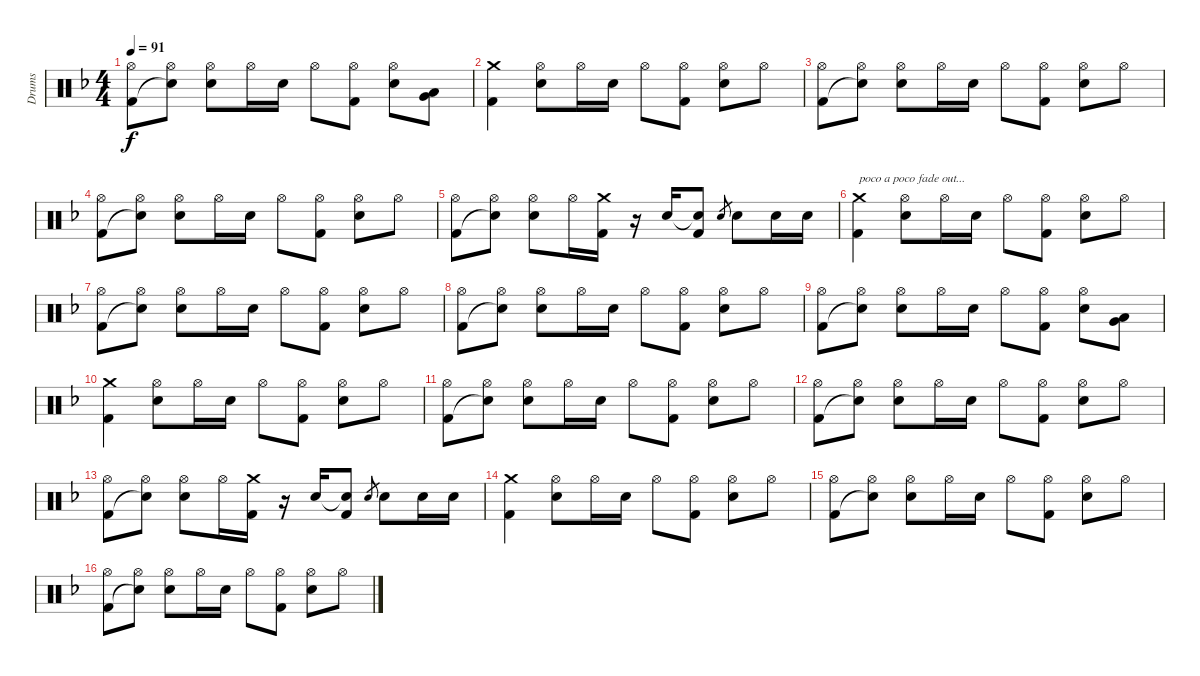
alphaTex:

\track ("Drums" "Drums") {instrument percussion}
\staff {score}
\articulation defaults
\ts (4 4)
\tempo 91
\clef neutral
\ks f
("Hi-Hat (open)" "Kick (hit) 2").8{dy f} ("Hi-Hat (open)" "Snare (hit)"{t}).8 ("Hi-Hat (open)" "Electric Snare (hit)").8 "Hi-Hat (open)".16 "Electric Snare (hit)".16 "Hi-Hat (open)".8 ("Hi-Hat (open)" "Kick (hit) 2").8 ("Hi-Hat (open)" "Electric Snare (hit)").8 ("Very Low Tom (hit)" "Low Floor Tom (hit)").8 |
("Crash medium (hit)" "Kick (hit) 2").4 ("Hi-Hat (open)" "Electric Snare (hit)").8 "Hi-Hat (open)".16 "Electric Snare (hit)".16 "Hi-Hat (open)".8 ("Hi-Hat (open)" "Kick (hit) 2").8 ("Hi-Hat (open)" "Electric Snare (hit)").8 "Hi-Hat (open)".8 |
("Hi-Hat (open)" "Kick (hit) 2").8 ("Hi-Hat (open)" "Snare (hit)"{t}).8 ("Hi-Hat (open)" "Electric Snare (hit)").8 "Hi-Hat (open)".16 "Electric Snare (hit)".16 "Hi-Hat (open)".8 ("Hi-Hat (open)" "Kick (hit) 2").8 ("Hi-Hat (open)" "Electric Snare (hit)").8 "Hi-Hat (open)".8 |
("Hi-Hat (open)" "Kick (hit) 2").8 ("Hi-Hat (open)" "Snare (hit)"{t}).8 ("Hi-Hat (open)" "Electric Snare (hit)").8 "Hi-Hat (open)".16 "Electric Snare (hit)".16 "Hi-Hat (open)".8 ("Hi-Hat (open)" "Kick (hit) 2").8 ("Hi-Hat (open)" "Electric Snare (hit)").8 "Hi-Hat (open)".8 |
("Hi-Hat (open)" "Kick (hit) 2").8 ("Hi-Hat (open)" "Snare (hit)"{t}).8 ("Hi-Hat (open)" "Electric Snare (hit)").8 "Hi-Hat (open)".16 ("Crash medium (hit)" "Kick (hit) 2").16 r.16 "Electric Snare (hit)".16 ("Snare (hit)"{t} "Kick (hit) 2").8 "Electric Snare (hit)".8{gr} "Electric Snare (hit)".8 "Electric Snare (hit)".16 "Electric Snare (hit)".16 |
("Crash medium (hit)" "Kick (hit) 2").4{txt "poco a poco fade out..."} ("Hi-Hat (open)" "Electric Snare (hit)").8 "Hi-Hat (open)".16 "Electric Snare (hit)".16 "Hi-Hat (open)".8 ("Hi-Hat (open)" "Kick (hit) 2").8 ("Hi-Hat (open)" "Electric Snare (hit)").8 "Hi-Hat (open)".8 |
("Hi-Hat (open)" "Kick (hit) 2").8{volume 12} ("Hi-Hat (open)" "Snare (hit)"{t}).8 ("Hi-Hat (open)" "Electric Snare (hit)").8 "Hi-Hat (open)".16 "Electric Snare (hit)".16 "Hi-Hat (open)".8 ("Hi-Hat (open)" "Kick (hit) 2").8 ("Hi-Hat (open)" "Electric Snare (hit)").8 "Hi-Hat (open)".8 |
("Hi-Hat (open)" "Kick (hit) 2").8 ("Hi-Hat (open)" "Snare (hit)"{t}).8 ("Hi-Hat (open)" "Electric Snare (hit)").8 "Hi-Hat (open)".16 "Electric Snare (hit)".16 "Hi-Hat (open)".8 ("Hi-Hat (open)" "Kick (hit) 2").8 ("Hi-Hat (open)" "Electric Snare (hit)").8 "Hi-Hat (open)".8 |
("Hi-Hat (open)" "Kick (hit) 2").8 ("Hi-Hat (open)" "Snare (hit)"{t}).8 ("Hi-Hat (open)" "Electric Snare (hit)").8 "Hi-Hat (open)".16 "Electric Snare (hit)".16 "Hi-Hat (open)".8 ("Hi-Hat (open)" "Kick (hit) 2").8 ("Hi-Hat (open)" "Electric Snare (hit)").8 ("Very Low Tom (hit)" "Low Floor Tom (hit)").8 |
("Crash medium (hit)" "Kick (hit) 2").4{volume 11} ("Hi-Hat (open)" "Electric Snare (hit)").8 "Hi-Hat (open)".16 "Electric Snare (hit)".16 "Hi-Hat (open)".8 ("Hi-Hat (open)" "Kick (hit) 2").8 ("Hi-Hat (open)" "Electric Snare (hit)").8 "Hi-Hat (open)".8 |
("Hi-Hat (open)" "Kick (hit) 2").8 ("Hi-Hat (open)" "Snare (hit)"{t}).8 ("Hi-Hat (open)" "Electric Snare (hit)").8 "Hi-Hat (open)".16 "Electric Snare (hit)".16 "Hi-Hat (open)".8 ("Hi-Hat (open)" "Kick (hit) 2").8 ("Hi-Hat (open)" "Electric Snare (hit)").8 "Hi-Hat (open)".8 |
("Hi-Hat (open)" "Kick (hit) 2").8 ("Hi-Hat (open)" "Snare (hit)"{t}).8 ("Hi-Hat (open)" "Electric Snare (hit)").8 "Hi-Hat (open)".16 "Electric Snare (hit)".16 "Hi-Hat (open)".8 ("Hi-Hat (open)" "Kick (hit) 2").8 ("Hi-Hat (open)" "Electric Snare (hit)").8 "Hi-Hat (open)".8 |
("Hi-Hat (open)" "Kick (hit) 2").8{volume 10} ("Hi-Hat (open)" "Snare (hit)"{t}).8 ("Hi-Hat (open)" "Electric Snare (hit)").8 "Hi-Hat (open)".16 ("Crash medium (hit)" "Kick (hit) 2").16 r.16 "Electric Snare (hit)".16 ("Snare (hit)"{t} "Kick (hit) 2").8 "Electric Snare (hit)".8{gr} "Electric Snare (hit)".8 "Electric Snare (hit)".16 "Electric Snare (hit)".16 |
("Crash medium (hit)" "Kick (hit) 2").4 ("Hi-Hat (open)" "Electric Snare (hit)").8 "Hi-Hat (open)".16 "Electric Snare (hit)".16 "Hi-Hat (open)".8 ("Hi-Hat (open)" "Kick (hit) 2").8 ("Hi-Hat (open)" "Electric Snare (hit)").8 "Hi-Hat (open)".8 |
("Hi-Hat (open)" "Kick (hit) 2").8{volume 9} ("Hi-Hat (open)" "Snare (hit)"{t}).8 ("Hi-Hat (open)" "Electric Snare (hit)").8 "Hi-Hat (open)".16 "Electric Snare (hit)".16 "Hi-Hat (open)".8 ("Hi-Hat (open)" "Kick (hit) 2").8 ("Hi-Hat (open)" "Electric Snare (hit)").8 "Hi-Hat (open)".8 |
("Hi-Hat (open)" "Kick (hit) 2").8 ("Hi-Hat (open)" "Snare (hit)"{t}).8 ("Hi-Hat (open)" "Electric Snare (hit)").8 "Hi-Hat (open)".16 "Electric Snare (hit)".16 "Hi-Hat (open)".8 ("Hi-Hat (open)" "Kick (hit) 2").8 ("Hi-Hat (open)" "Electric Snare (hit)").8 "Hi-Hat (open)".8
